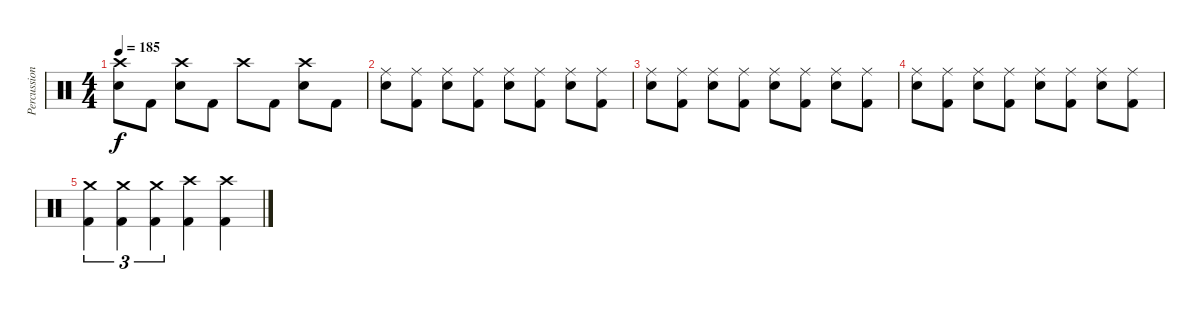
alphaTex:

\track ("Percussion" "Percussion") {instrument percussion}
\staff {score}
\articulation defaults
\ts (4 4)
\tempo 185
\clef neutral
\ks c
("Crash high (hit)" "Snare (hit)"{t}).8{dy f} "Kick (hit) 2".8 ("Crash high (hit)" "Electric Snare (hit)").8 "Kick (hit) 2".8 "Crash high (hit)".8 "Kick (hit) 2".8 ("Crash high (hit)" "Electric Snare (hit)").8 "Kick (hit) 2".8 |
("Ride (middle)" "Electric Snare (hit)").8 ("Ride (middle)" "Kick (hit) 2").8 ("Ride (middle)" "Electric Snare (hit)").8 ("Ride (middle)" "Kick (hit) 2").8 ("Ride (middle)" "Electric Snare (hit)").8 ("Ride (middle)" "Kick (hit) 2").8 ("Ride (middle)" "Electric Snare (hit)").8 ("Ride (middle)" "Kick (hit) 2").8 |
("Ride (middle)" "Electric Snare (hit)").8 ("Ride (middle)" "Kick (hit) 2").8 ("Ride (middle)" "Electric Snare (hit)").8 ("Ride (middle)" "Kick (hit) 2").8 ("Ride (middle)" "Electric Snare (hit)").8 ("Ride (middle)" "Kick (hit) 2").8 ("Ride (middle)" "Electric Snare (hit)").8 ("Ride (middle)" "Kick (hit) 2").8 |
("Ride (middle)" "Electric Snare (hit)").8 ("Ride (middle)" "Kick (hit) 2").8 ("Ride (middle)" "Electric Snare (hit)").8 ("Ride (middle)" "Kick (hit) 2").8 ("Ride (middle)" "Electric Snare (hit)").8 ("Ride (middle)" "Kick (hit) 2").8 ("Ride (middle)" "Electric Snare (hit)").8 ("Ride (middle)" "Kick (hit) 2").8 |
("Crash medium (hit)" "Kick (hit) 2").4{tu (3 2)} ("Crash medium (hit)" "Kick (hit) 2").4{tu (3 2)} ("Crash medium (hit)" "Kick (hit) 2").4{tu (3 2)} ("Crash high (hit)" "Kick (hit) 2").4 ("Crash high (hit)" "Kick (hit) 2").4
